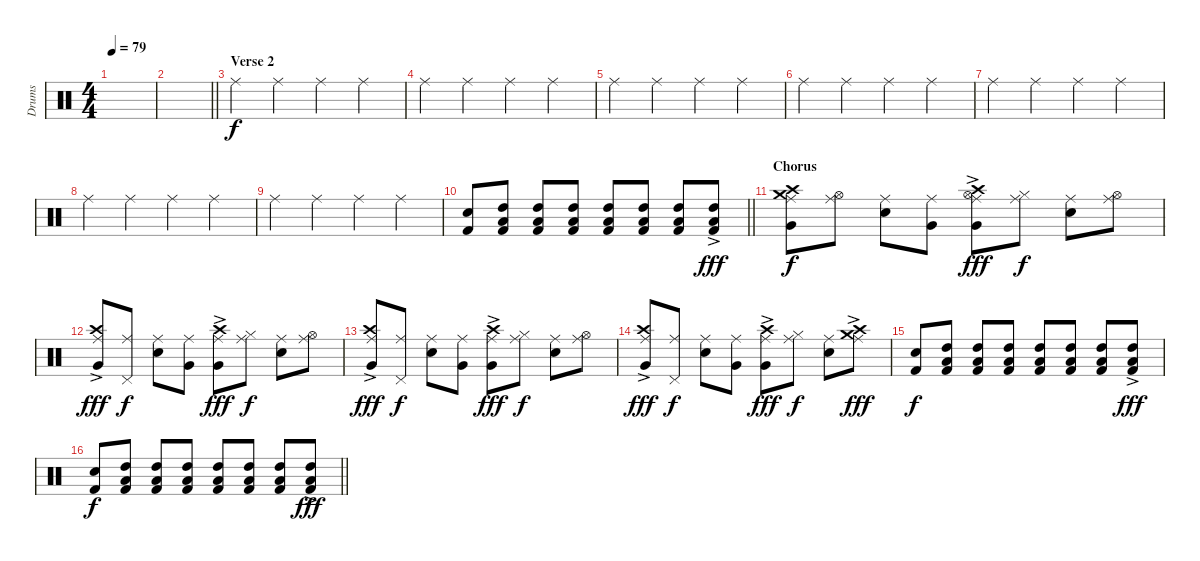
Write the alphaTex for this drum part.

\track ("Drums" "Drums") {instrument percussion}
\staff {score}
\articulation defaults
\ts (4 4)
\tempo 79
\clef neutral
\ks c
|
\barLineRight lightlight
|
\section ("" "Verse 2")
"Ride (middle)".4{dy f} "Ride (middle)".4 "Ride (middle)".4 "Ride (middle)".4 |
"Ride (middle)".4 "Ride (middle)".4 "Ride (middle)".4 "Ride (middle)".4 |
"Ride (middle)".4 "Ride (middle)".4 "Ride (middle)".4 "Ride (middle)".4 |
"Ride (middle)".4 "Ride (middle)".4 "Ride (middle)".4 "Ride (middle)".4 |
"Ride (middle)".4 "Ride (middle)".4 "Ride (middle)".4 "Ride (middle)".4 |
"Ride (middle)".4 "Ride (middle)".4 "Ride (middle)".4 "Ride (middle)".4 |
"Ride (middle)".4 "Ride (middle)".4 "Ride (middle)".4 "Ride (middle)".4 |
\barLineRight lightlight
("Kick (hit) 2" "Snare (hit) 2").8 ("High Tom (hit)" "Kick (hit) 2" "Low Tom (hit)").8 ("High Tom (hit)" "Kick (hit) 2" "Low Tom (hit)").8 ("High Tom (hit)" "Kick (hit) 2" "Low Tom (hit)").8 ("High Tom (hit)" "Kick (hit) 2" "Low Tom (hit)").8 ("High Tom (hit)" "Kick (hit) 2" "Low Tom (hit)").8 ("High Tom (hit)" "Kick (hit) 2" "Low Tom (hit)").8 ("High Tom (hit)"{ac} "Kick (hit) 2"{ac} "Low Tom (hit)"{ac}).8{dy fff} |
\section ("" "Chorus")
("Crash medium (hit)" "Crash high (hit)" "Very Low Tom (hit)" "Ride (middle)").8{dy f} ("Hi-Hat (open)" "Ride (middle)").8 ("Snare (hit) 2" "Ride (middle)").8 ("Very Low Tom (hit)" "Ride (middle)").8 ("Crash high (hit)"{ac} "Hi-Hat (open)" "Very Low Tom (hit)" "Ride (middle)").8{dy fff} ("Hi-Hat (closed)" "Ride (middle)").8{dy f} ("Snare (hit) 2" "Ride (middle)").8 ("Hi-Hat (open)" "Ride (middle)").8 |
("Crash high (hit)"{ac} "Very Low Tom (hit)" "Ride (middle)").8{dy fff} ("Pedal Hi-Hat (hit)" "Ride (middle)").8{dy f} ("Snare (hit) 2" "Ride (middle)").8 ("Very Low Tom (hit)" "Ride (middle)").8 ("Crash high (hit)"{ac} "Very Low Tom (hit)" "Ride (middle)").8{dy fff} ("Hi-Hat (closed)" "Ride (middle)").8{dy f} ("Snare (hit) 2" "Ride (middle)").8 ("Hi-Hat (open)" "Ride (middle)").8 |
("Crash high (hit)"{ac} "Very Low Tom (hit)" "Ride (middle)").8{dy fff} ("Pedal Hi-Hat (hit)" "Ride (middle)").8{dy f} ("Snare (hit) 2" "Ride (middle)").8 ("Very Low Tom (hit)" "Ride (middle)").8 ("Crash high (hit)"{ac} "Very Low Tom (hit)" "Ride (middle)").8{dy fff} ("Hi-Hat (closed)" "Ride (middle)").8{dy f} ("Snare (hit) 2" "Ride (middle)").8 ("Hi-Hat (open)" "Ride (middle)").8 |
("Crash high (hit)"{ac} "Very Low Tom (hit)" "Ride (middle)").8{dy fff} ("Pedal Hi-Hat (hit)" "Ride (middle)").8{dy f} ("Snare (hit) 2" "Ride (middle)").8 ("Very Low Tom (hit)" "Ride (middle)").8 ("Crash high (hit)"{ac} "Very Low Tom (hit)" "Ride (middle)").8{dy fff} ("Hi-Hat (closed)" "Ride (middle)").8{dy f} ("Snare (hit) 2" "Ride (middle)").8 ("Crash high (hit)"{ac} "Crash medium (hit)" "Ride (middle)").8{dy fff} |
("Kick (hit) 2" "Snare (hit) 2").8{dy f} ("High Tom (hit)" "Kick (hit) 2" "Low Tom (hit)").8 ("High Tom (hit)" "Kick (hit) 2" "Low Tom (hit)").8 ("High Tom (hit)" "Kick (hit) 2" "Low Tom (hit)").8 ("High Tom (hit)" "Kick (hit) 2" "Low Tom (hit)").8 ("High Tom (hit)" "Kick (hit) 2" "Low Tom (hit)").8 ("High Tom (hit)" "Kick (hit) 2" "Low Tom (hit)").8 ("High Tom (hit)"{ac} "Kick (hit) 2"{ac} "Low Tom (hit)"{ac}).8{dy fff} |
\barLineRight lightlight
("Kick (hit) 2" "Snare (hit) 2").8{dy f} ("High Tom (hit)" "Kick (hit) 2" "Low Tom (hit)").8 ("High Tom (hit)" "Kick (hit) 2" "Low Tom (hit)").8 ("High Tom (hit)" "Kick (hit) 2" "Low Tom (hit)").8 ("High Tom (hit)" "Kick (hit) 2" "Low Tom (hit)").8 ("High Tom (hit)" "Kick (hit) 2" "Low Tom (hit)").8 ("High Tom (hit)" "Kick (hit) 2" "Low Tom (hit)").8 ("High Tom (hit)"{ac} "Kick (hit) 2"{ac} "Low Tom (hit)"{ac}).8{dy fff}
